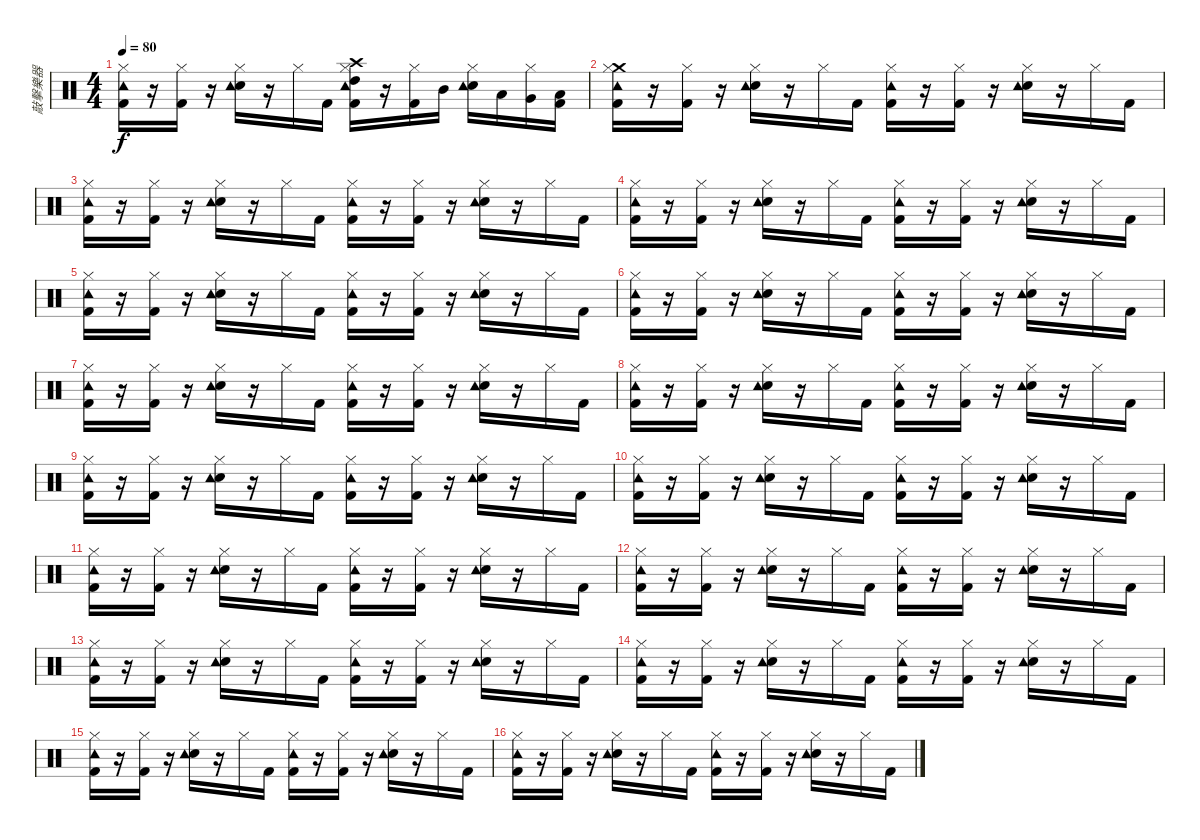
\track ("敲擊樂器" "敲擊樂器") {instrument percussion}
\staff {score}
\articulation defaults
\ts (4 4)
\tempo 80
\clef neutral
\ks c
("Kick (hit) 2" "Hi-Hat (closed)" "Tambourine (hit)").16{dy f} r.16 ("Kick (hit) 2" "Hi-Hat (closed)").16 r.16 ("Snare (hit) 2" "Hi-Hat (closed)" "Tambourine (hit)").16 r.16 "Hi-Hat (closed)".16 "Kick (hit) 2".16 ("Kick (hit) 2" "High Tom (hit)" "Crash high (hit)" "Hi-Hat (closed)" "Tambourine (hit)").16 r.16 ("Kick (hit) 2" "Hi-Hat (closed)").16 "Mid Tom (hit)".16 ("Snare (hit) 2" "Hi-Hat (closed)" "Tambourine (hit)").16 "Low Tom (hit)".16 ("Very Low Tom (hit)" "Hi-Hat (closed)").16 ("Kick (hit) 2" "Low Floor Tom (hit)").16 |
("Kick (hit) 2" "Crash medium (hit)" "Hi-Hat (closed)" "Tambourine (hit)").16 r.16 ("Kick (hit) 2" "Hi-Hat (closed)").16 r.16 ("Snare (hit) 2" "Hi-Hat (closed)" "Tambourine (hit)").16 r.16 "Hi-Hat (closed)".16 "Kick (hit) 2".16 ("Kick (hit) 2" "Hi-Hat (closed)" "Tambourine (hit)").16 r.16 ("Kick (hit) 2" "Hi-Hat (closed)").16 r.16 ("Snare (hit) 2" "Hi-Hat (closed)" "Tambourine (hit)").16 r.16 "Hi-Hat (closed)".16 "Kick (hit) 2".16 |
("Kick (hit) 2" "Hi-Hat (closed)" "Tambourine (hit)").16 r.16 ("Kick (hit) 2" "Hi-Hat (closed)").16 r.16 ("Snare (hit) 2" "Hi-Hat (closed)" "Tambourine (hit)").16 r.16 "Hi-Hat (closed)".16 "Kick (hit) 2".16 ("Kick (hit) 2" "Hi-Hat (closed)" "Tambourine (hit)").16 r.16 ("Kick (hit) 2" "Hi-Hat (closed)").16 r.16 ("Snare (hit) 2" "Hi-Hat (closed)" "Tambourine (hit)").16 r.16 "Hi-Hat (closed)".16 "Kick (hit) 2".16 |
("Kick (hit) 2" "Hi-Hat (closed)" "Tambourine (hit)").16 r.16 ("Kick (hit) 2" "Hi-Hat (closed)").16 r.16 ("Snare (hit) 2" "Hi-Hat (closed)" "Tambourine (hit)").16 r.16 "Hi-Hat (closed)".16 "Kick (hit) 2".16 ("Kick (hit) 2" "Hi-Hat (closed)" "Tambourine (hit)").16 r.16 ("Kick (hit) 2" "Hi-Hat (closed)").16 r.16 ("Snare (hit) 2" "Hi-Hat (closed)" "Tambourine (hit)").16 r.16 "Hi-Hat (closed)".16 "Kick (hit) 2".16 |
("Kick (hit) 2" "Hi-Hat (closed)" "Tambourine (hit)").16 r.16 ("Kick (hit) 2" "Hi-Hat (closed)").16 r.16 ("Snare (hit) 2" "Hi-Hat (closed)" "Tambourine (hit)").16 r.16 "Hi-Hat (closed)".16 "Kick (hit) 2".16 ("Kick (hit) 2" "Hi-Hat (closed)" "Tambourine (hit)").16 r.16 ("Kick (hit) 2" "Hi-Hat (closed)").16 r.16 ("Snare (hit) 2" "Hi-Hat (closed)" "Tambourine (hit)").16 r.16 "Hi-Hat (closed)".16 "Kick (hit) 2".16 |
("Kick (hit) 2" "Hi-Hat (closed)" "Tambourine (hit)").16 r.16 ("Kick (hit) 2" "Hi-Hat (closed)").16 r.16 ("Snare (hit) 2" "Hi-Hat (closed)" "Tambourine (hit)").16 r.16 "Hi-Hat (closed)".16 "Kick (hit) 2".16 ("Kick (hit) 2" "Hi-Hat (closed)" "Tambourine (hit)").16 r.16 ("Kick (hit) 2" "Hi-Hat (closed)").16 r.16 ("Snare (hit) 2" "Hi-Hat (closed)" "Tambourine (hit)").16 r.16 "Hi-Hat (closed)".16 "Kick (hit) 2".16 |
("Kick (hit) 2" "Hi-Hat (closed)" "Tambourine (hit)").16 r.16 ("Kick (hit) 2" "Hi-Hat (closed)").16 r.16 ("Snare (hit) 2" "Hi-Hat (closed)" "Tambourine (hit)").16 r.16 "Hi-Hat (closed)".16 "Kick (hit) 2".16 ("Kick (hit) 2" "Hi-Hat (closed)" "Tambourine (hit)").16 r.16 ("Kick (hit) 2" "Hi-Hat (closed)").16 r.16 ("Snare (hit) 2" "Hi-Hat (closed)" "Tambourine (hit)").16 r.16 "Hi-Hat (closed)".16 "Kick (hit) 2".16 |
("Kick (hit) 2" "Hi-Hat (closed)" "Tambourine (hit)").16 r.16 ("Kick (hit) 2" "Hi-Hat (closed)").16 r.16 ("Snare (hit) 2" "Hi-Hat (closed)" "Tambourine (hit)").16 r.16 "Hi-Hat (closed)".16 "Kick (hit) 2".16 ("Kick (hit) 2" "Hi-Hat (closed)" "Tambourine (hit)").16 r.16 ("Kick (hit) 2" "Hi-Hat (closed)").16 r.16 ("Snare (hit) 2" "Hi-Hat (closed)" "Tambourine (hit)").16 r.16 "Hi-Hat (closed)".16 "Kick (hit) 2".16 |
("Kick (hit) 2" "Hi-Hat (closed)" "Tambourine (hit)").16 r.16 ("Kick (hit) 2" "Hi-Hat (closed)").16 r.16 ("Snare (hit) 2" "Hi-Hat (closed)" "Tambourine (hit)").16 r.16 "Hi-Hat (closed)".16 "Kick (hit) 2".16 ("Kick (hit) 2" "Hi-Hat (closed)" "Tambourine (hit)").16 r.16 ("Kick (hit) 2" "Hi-Hat (closed)").16 r.16 ("Snare (hit) 2" "Hi-Hat (closed)" "Tambourine (hit)").16 r.16 "Hi-Hat (closed)".16 "Kick (hit) 2".16 |
("Kick (hit) 2" "Hi-Hat (closed)" "Tambourine (hit)").16 r.16 ("Kick (hit) 2" "Hi-Hat (closed)").16 r.16 ("Snare (hit) 2" "Hi-Hat (closed)" "Tambourine (hit)").16 r.16 "Hi-Hat (closed)".16 "Kick (hit) 2".16 ("Kick (hit) 2" "Hi-Hat (closed)" "Tambourine (hit)").16 r.16 ("Kick (hit) 2" "Hi-Hat (closed)").16 r.16 ("Snare (hit) 2" "Hi-Hat (closed)" "Tambourine (hit)").16 r.16 "Hi-Hat (closed)".16 "Kick (hit) 2".16 |
("Kick (hit) 2" "Hi-Hat (closed)" "Tambourine (hit)").16 r.16 ("Kick (hit) 2" "Hi-Hat (closed)").16 r.16 ("Snare (hit) 2" "Hi-Hat (closed)" "Tambourine (hit)").16 r.16 "Hi-Hat (closed)".16 "Kick (hit) 2".16 ("Kick (hit) 2" "Hi-Hat (closed)" "Tambourine (hit)").16 r.16 ("Kick (hit) 2" "Hi-Hat (closed)").16 r.16 ("Snare (hit) 2" "Hi-Hat (closed)" "Tambourine (hit)").16 r.16 "Hi-Hat (closed)".16 "Kick (hit) 2".16 |
("Kick (hit) 2" "Hi-Hat (closed)" "Tambourine (hit)").16 r.16 ("Kick (hit) 2" "Hi-Hat (closed)").16 r.16 ("Snare (hit) 2" "Hi-Hat (closed)" "Tambourine (hit)").16 r.16 "Hi-Hat (closed)".16 "Kick (hit) 2".16 ("Kick (hit) 2" "Hi-Hat (closed)" "Tambourine (hit)").16 r.16 ("Kick (hit) 2" "Hi-Hat (closed)").16 r.16 ("Snare (hit) 2" "Hi-Hat (closed)" "Tambourine (hit)").16 r.16 "Hi-Hat (closed)".16 "Kick (hit) 2".16 |
("Kick (hit) 2" "Hi-Hat (closed)" "Tambourine (hit)").16 r.16 ("Kick (hit) 2" "Hi-Hat (closed)").16 r.16 ("Snare (hit) 2" "Hi-Hat (closed)" "Tambourine (hit)").16 r.16 "Hi-Hat (closed)".16 "Kick (hit) 2".16 ("Kick (hit) 2" "Hi-Hat (closed)" "Tambourine (hit)").16 r.16 ("Kick (hit) 2" "Hi-Hat (closed)").16 r.16 ("Snare (hit) 2" "Hi-Hat (closed)" "Tambourine (hit)").16 r.16 "Hi-Hat (closed)".16 "Kick (hit) 2".16 |
("Kick (hit) 2" "Hi-Hat (closed)" "Tambourine (hit)").16 r.16 ("Kick (hit) 2" "Hi-Hat (closed)").16 r.16 ("Snare (hit) 2" "Hi-Hat (closed)" "Tambourine (hit)").16 r.16 "Hi-Hat (closed)".16 "Kick (hit) 2".16 ("Kick (hit) 2" "Hi-Hat (closed)" "Tambourine (hit)").16 r.16 ("Kick (hit) 2" "Hi-Hat (closed)").16 r.16 ("Snare (hit) 2" "Hi-Hat (closed)" "Tambourine (hit)").16 r.16 "Hi-Hat (closed)".16 "Kick (hit) 2".16 |
("Kick (hit) 2" "Hi-Hat (closed)" "Tambourine (hit)").16 r.16 ("Kick (hit) 2" "Hi-Hat (closed)").16 r.16 ("Snare (hit) 2" "Hi-Hat (closed)" "Tambourine (hit)").16 r.16 "Hi-Hat (closed)".16 "Kick (hit) 2".16 ("Kick (hit) 2" "Hi-Hat (closed)" "Tambourine (hit)").16 r.16 ("Kick (hit) 2" "Hi-Hat (closed)").16 r.16 ("Snare (hit) 2" "Hi-Hat (closed)" "Tambourine (hit)").16 r.16 "Hi-Hat (closed)".16 "Kick (hit) 2".16 |
("Kick (hit) 2" "Hi-Hat (closed)" "Tambourine (hit)").16 r.16 ("Kick (hit) 2" "Hi-Hat (closed)").16 r.16 ("Snare (hit) 2" "Hi-Hat (closed)" "Tambourine (hit)").16 r.16 "Hi-Hat (closed)".16 "Kick (hit) 2".16 ("Kick (hit) 2" "Hi-Hat (closed)" "Tambourine (hit)").16 r.16 ("Kick (hit) 2" "Hi-Hat (closed)").16 r.16 ("Snare (hit) 2" "Hi-Hat (closed)" "Tambourine (hit)").16 r.16 "Hi-Hat (closed)".16 "Kick (hit) 2".16
